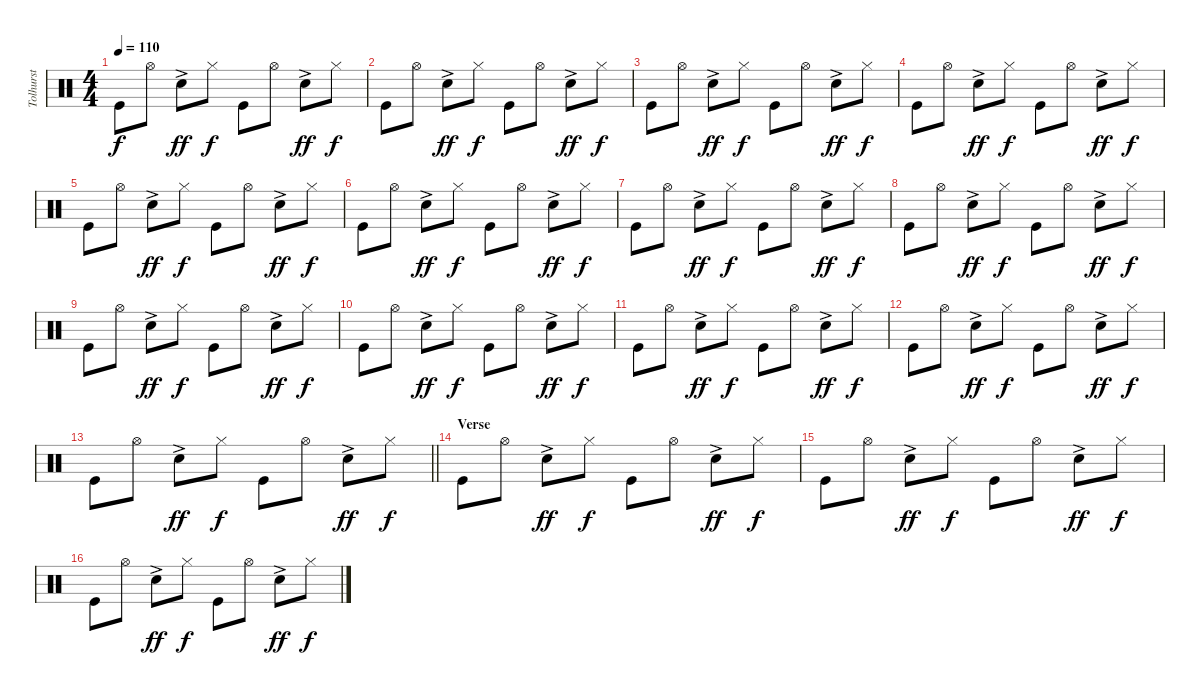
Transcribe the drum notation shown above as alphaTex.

\track ("Tolhurst" "Tolhurst") {instrument percussion}
\staff {score}
\articulation defaults
\ts (4 4)
\tempo 110
\clef neutral
\ks c "Kick (hit)".8{dy f} "Hi-Hat (open)".8 "Electric Snare (hit)"{ac}.8{dy ff} "Hi-Hat (closed)".8{dy f} "Kick (hit)".8 "Hi-Hat (open)".8 "Electric Snare (hit)"{ac}.8{dy ff} "Hi-Hat (closed)".8{dy f}
|
"Kick (hit)".8 "Hi-Hat (open)".8 "Electric Snare (hit)"{ac}.8{dy ff} "Hi-Hat (closed)".8{dy f} "Kick (hit)".8 "Hi-Hat (open)".8 "Electric Snare (hit)"{ac}.8{dy ff} "Hi-Hat (closed)".8{dy f} |
"Kick (hit)".8 "Hi-Hat (open)".8 "Electric Snare (hit)"{ac}.8{dy ff} "Hi-Hat (closed)".8{dy f} "Kick (hit)".8 "Hi-Hat (open)".8 "Electric Snare (hit)"{ac}.8{dy ff} "Hi-Hat (closed)".8{dy f} |
"Kick (hit)".8 "Hi-Hat (open)".8 "Electric Snare (hit)"{ac}.8{dy ff} "Hi-Hat (closed)".8{dy f} "Kick (hit)".8 "Hi-Hat (open)".8 "Electric Snare (hit)"{ac}.8{dy ff} "Hi-Hat (closed)".8{dy f} |
"Kick (hit)".8 "Hi-Hat (open)".8 "Electric Snare (hit)"{ac}.8{dy ff} "Hi-Hat (closed)".8{dy f} "Kick (hit)".8 "Hi-Hat (open)".8 "Electric Snare (hit)"{ac}.8{dy ff} "Hi-Hat (closed)".8{dy f} |
"Kick (hit)".8 "Hi-Hat (open)".8 "Electric Snare (hit)"{ac}.8{dy ff} "Hi-Hat (closed)".8{dy f} "Kick (hit)".8 "Hi-Hat (open)".8 "Electric Snare (hit)"{ac}.8{dy ff} "Hi-Hat (closed)".8{dy f} |
"Kick (hit)".8 "Hi-Hat (open)".8 "Electric Snare (hit)"{ac}.8{dy ff} "Hi-Hat (closed)".8{dy f} "Kick (hit)".8 "Hi-Hat (open)".8 "Electric Snare (hit)"{ac}.8{dy ff} "Hi-Hat (closed)".8{dy f} |
"Kick (hit)".8 "Hi-Hat (open)".8 "Electric Snare (hit)"{ac}.8{dy ff} "Hi-Hat (closed)".8{dy f} "Kick (hit)".8 "Hi-Hat (open)".8 "Electric Snare (hit)"{ac}.8{dy ff} "Hi-Hat (closed)".8{dy f} |
"Kick (hit)".8 "Hi-Hat (open)".8 "Electric Snare (hit)"{ac}.8{dy ff} "Hi-Hat (closed)".8{dy f} "Kick (hit)".8 "Hi-Hat (open)".8 "Electric Snare (hit)"{ac}.8{dy ff} "Hi-Hat (closed)".8{dy f} |
"Kick (hit)".8 "Hi-Hat (open)".8 "Electric Snare (hit)"{ac}.8{dy ff} "Hi-Hat (closed)".8{dy f} "Kick (hit)".8 "Hi-Hat (open)".8 "Electric Snare (hit)"{ac}.8{dy ff} "Hi-Hat (closed)".8{dy f} |
"Kick (hit)".8 "Hi-Hat (open)".8 "Electric Snare (hit)"{ac}.8{dy ff} "Hi-Hat (closed)".8{dy f} "Kick (hit)".8 "Hi-Hat (open)".8 "Electric Snare (hit)"{ac}.8{dy ff} "Hi-Hat (closed)".8{dy f} |
"Kick (hit)".8 "Hi-Hat (open)".8 "Electric Snare (hit)"{ac}.8{dy ff} "Hi-Hat (closed)".8{dy f} "Kick (hit)".8 "Hi-Hat (open)".8 "Electric Snare (hit)"{ac}.8{dy ff} "Hi-Hat (closed)".8{dy f} |
\barLineRight lightlight "Kick (hit)".8 "Hi-Hat (open)".8 "Electric Snare (hit)"{ac}.8{dy ff} "Hi-Hat (closed)".8{dy f} "Kick (hit)".8 "Hi-Hat (open)".8 "Electric Snare (hit)"{ac}.8{dy ff} "Hi-Hat (closed)".8{dy f}
|
\section ("" "Verse")
"Kick (hit)".8 "Hi-Hat (open)".8 "Electric Snare (hit)"{ac}.8{dy ff} "Hi-Hat (closed)".8{dy f} "Kick (hit)".8 "Hi-Hat (open)".8 "Electric Snare (hit)"{ac}.8{dy ff} "Hi-Hat (closed)".8{dy f} |
"Kick (hit)".8 "Hi-Hat (open)".8 "Electric Snare (hit)"{ac}.8{dy ff} "Hi-Hat (closed)".8{dy f} "Kick (hit)".8 "Hi-Hat (open)".8 "Electric Snare (hit)"{ac}.8{dy ff} "Hi-Hat (closed)".8{dy f} |
"Kick (hit)".8 "Hi-Hat (open)".8 "Electric Snare (hit)"{ac}.8{dy ff} "Hi-Hat (closed)".8{dy f} "Kick (hit)".8 "Hi-Hat (open)".8 "Electric Snare (hit)"{ac}.8{dy ff} "Hi-Hat (closed)".8{dy f}
